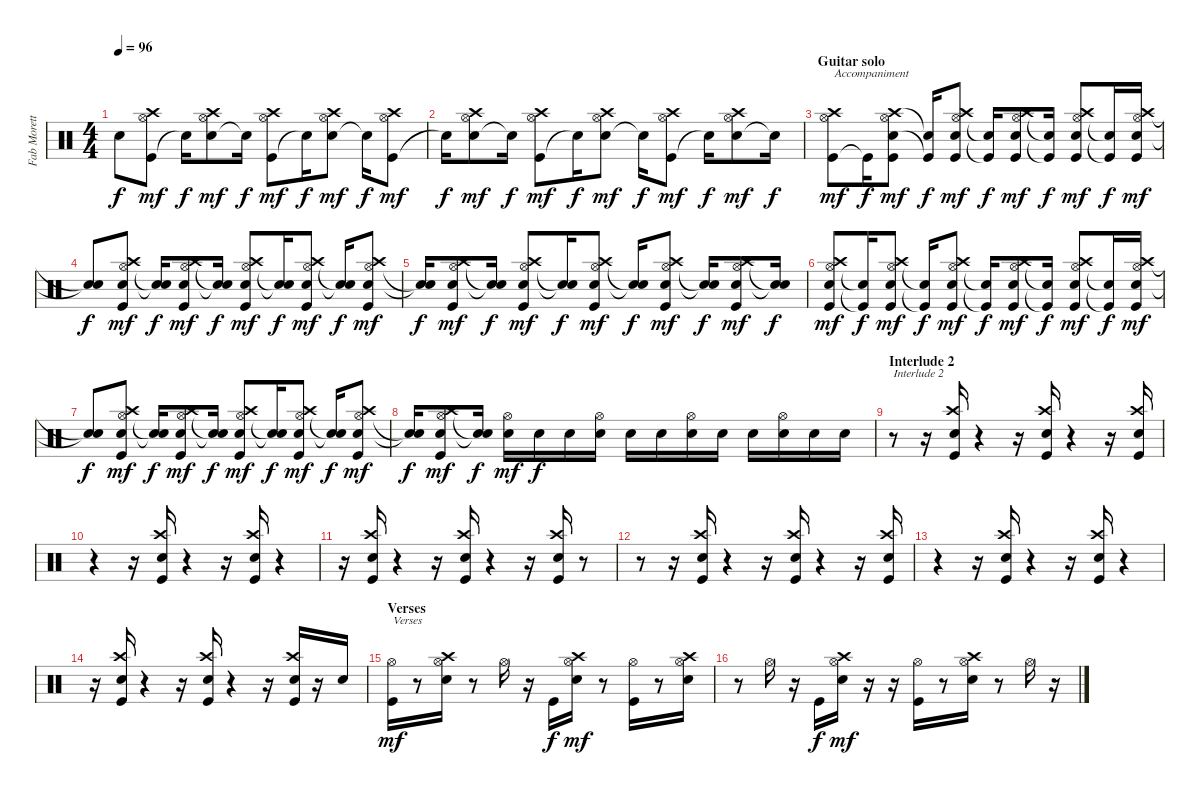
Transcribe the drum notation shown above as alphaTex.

\track ("Fab Moretti" "Fab Morett") {instrument percussion}
\staff {score}
\articulation defaults
\ts (4 4)
\tempo 96
\clef neutral
\ks c "Snare (hit)"{t}.8{dy f}
("Kick (hit)" "Hi-Hat (open)" "Crash high (hit)").8{dy mf} "Snare (hit)"{t}.16{dy f} ("Electric Snare (hit)" "Crash high (hit)" "Hi-Hat (open)").8{dy mf} "Snare (hit)"{t}.16{dy f} ("Kick (hit)" "Hi-Hat (open)" "Crash high (hit)").8{dy mf} "Snare (hit)"{t}.16{dy f} ("Electric Snare (hit)" "Crash high (hit)" "Hi-Hat (open)").8{dy mf} "Snare (hit)"{t}.16{dy f} ("Kick (hit)" "Hi-Hat (open)" "Crash high (hit)").8{dy mf} |
"Snare (hit)"{t}.16{dy f} ("Electric Snare (hit)" "Crash high (hit)" "Hi-Hat (open)").8{dy mf} "Snare (hit)"{t}.16{dy f} ("Kick (hit)" "Hi-Hat (open)" "Crash high (hit)").8{dy mf} "Snare (hit)"{t}.16{dy f} ("Electric Snare (hit)" "Crash high (hit)" "Hi-Hat (open)").8{dy mf} "Snare (hit)"{t}.16{dy f} ("Kick (hit)" "Hi-Hat (open)" "Crash high (hit)").8{dy mf} "Snare (hit)"{t}.16{dy f} ("Electric Snare (hit)" "Crash high (hit)" "Hi-Hat (open)").8{dy mf} "Snare (hit)"{t}.16{dy f} |
\section ("" "Guitar solo")
("Kick (hit)" "Hi-Hat (open)" "Crash high (hit)").8{txt "Accompaniment" dy mf} "Kick (hit)"{t}.16{dy f} ("Electric Snare (hit)" "Crash high (hit)" "Hi-Hat (open)" "Kick (hit)").8{dy mf} ("Kick (hit)"{t} "Snare (hit)"{t}).16{dy f} ("Electric Snare (hit)" "Hi-Hat (open)" "Crash high (hit)" "Kick (hit)").8{dy mf} ("Kick (hit)"{t} "Snare (hit)"{t}).16{dy f} ("Electric Snare (hit)" "Crash high (hit)" "Hi-Hat (open)" "Kick (hit)").8{dy mf} ("Kick (hit)"{t} "Snare (hit)"{t}).16{dy f} ("Electric Snare (hit)" "Hi-Hat (open)" "Crash high (hit)" "Kick (hit)").8{dy mf} ("Kick (hit)"{t} "Snare (hit)"{t}).16{dy f} ("Electric Snare (hit)" "Crash high (hit)" "Hi-Hat (open)" "Kick (hit)").16{dy mf} |
("Snare (hit)"{t} "Snare (hit)"{t}).8{dy f} ("Electric Snare (hit)" "Hi-Hat (open)" "Crash high (hit)" "Kick (hit)").8{dy mf} ("Snare (hit)"{t} "Snare (hit)"{t}).16{dy f} ("Electric Snare (hit)" "Crash high (hit)" "Hi-Hat (open)" "Kick (hit)").8{dy mf} ("Snare (hit)"{t} "Snare (hit)"{t}).16{dy f} ("Electric Snare (hit)" "Hi-Hat (open)" "Crash high (hit)" "Kick (hit)").8{dy mf} ("Snare (hit)"{t} "Snare (hit)"{t}).16{dy f} ("Electric Snare (hit)" "Crash high (hit)" "Hi-Hat (open)" "Kick (hit)").8{dy mf} ("Snare (hit)"{t} "Snare (hit)"{t}).16{dy f} ("Electric Snare (hit)" "Hi-Hat (open)" "Crash high (hit)" "Kick (hit)").8{dy mf} |
("Snare (hit)"{t} "Snare (hit)"{t}).16{dy f} ("Electric Snare (hit)" "Crash high (hit)" "Hi-Hat (open)" "Kick (hit)").8{dy mf} ("Snare (hit)"{t} "Snare (hit)"{t}).16{dy f} ("Electric Snare (hit)" "Hi-Hat (open)" "Crash high (hit)" "Kick (hit)").8{dy mf} ("Snare (hit)"{t} "Snare (hit)"{t}).16{dy f} ("Electric Snare (hit)" "Crash high (hit)" "Hi-Hat (open)" "Kick (hit)").8{dy mf} ("Snare (hit)"{t} "Snare (hit)"{t}).16{dy f} ("Electric Snare (hit)" "Hi-Hat (open)" "Crash high (hit)" "Kick (hit)").8{dy mf} ("Snare (hit)"{t} "Snare (hit)"{t}).16{dy f} ("Electric Snare (hit)" "Crash high (hit)" "Hi-Hat (open)" "Kick (hit)").8{dy mf} ("Snare (hit)"{t} "Snare (hit)"{t}).16{dy f} |
("Electric Snare (hit)" "Hi-Hat (open)" "Crash high (hit)" "Kick (hit)").8{dy mf} ("Kick (hit)"{t} "Snare (hit)"{t}).16{dy f} ("Electric Snare (hit)" "Crash high (hit)" "Hi-Hat (open)" "Kick (hit)").8{dy mf} ("Kick (hit)"{t} "Snare (hit)"{t}).16{dy f} ("Electric Snare (hit)" "Hi-Hat (open)" "Crash high (hit)" "Kick (hit)").8{dy mf} ("Kick (hit)"{t} "Snare (hit)"{t}).16{dy f} ("Electric Snare (hit)" "Crash high (hit)" "Hi-Hat (open)" "Kick (hit)").8{dy mf} ("Kick (hit)"{t} "Snare (hit)"{t}).16{dy f} ("Electric Snare (hit)" "Hi-Hat (open)" "Crash high (hit)" "Kick (hit)").8{dy mf} ("Kick (hit)"{t} "Snare (hit)"{t}).16{dy f} ("Electric Snare (hit)" "Crash high (hit)" "Hi-Hat (open)" "Kick (hit)").16{dy mf} |
("Snare (hit)"{t} "Snare (hit)"{t}).8{dy f} ("Electric Snare (hit)" "Hi-Hat (open)" "Crash high (hit)" "Kick (hit)").8{dy mf} ("Snare (hit)"{t} "Snare (hit)"{t}).16{dy f} ("Electric Snare (hit)" "Crash high (hit)" "Hi-Hat (open)" "Kick (hit)").8{dy mf} ("Snare (hit)"{t} "Snare (hit)"{t}).16{dy f} ("Electric Snare (hit)" "Hi-Hat (open)" "Crash high (hit)" "Kick (hit)").8{dy mf} ("Snare (hit)"{t} "Snare (hit)"{t}).16{dy f} ("Electric Snare (hit)" "Crash high (hit)" "Hi-Hat (open)" "Kick (hit)").8{dy mf} ("Snare (hit)"{t} "Snare (hit)"{t}).16{dy f} ("Electric Snare (hit)" "Hi-Hat (open)" "Crash high (hit)" "Kick (hit)").8{dy mf} |
("Snare (hit)"{t} "Snare (hit)"{t}).16{dy f} ("Electric Snare (hit)" "Crash high (hit)" "Hi-Hat (open)" "Kick (hit)").8{dy mf} ("Snare (hit)"{t} "Snare (hit)"{t}).16{dy f} ("Electric Snare (hit)" "Hi-Hat (open)").16{dy mf} "Electric Snare (hit)".16{dy f} "Electric Snare (hit)".16 ("Electric Snare (hit)" "Hi-Hat (open)").16 "Electric Snare (hit)".16 "Electric Snare (hit)".16 ("Electric Snare (hit)" "Hi-Hat (open)").16 "Electric Snare (hit)".16 "Electric Snare (hit)".16 ("Electric Snare (hit)" "Hi-Hat (open)").16 "Electric Snare (hit)".16 "Electric Snare (hit)".16 |
\section ("" "Interlude 2")
r.8{txt "Interlude 2"} r.16 ("Kick (hit)" "Crash high (hit)" "Electric Snare (hit)").16 r.4 r.16 ("Kick (hit)" "Crash high (hit)" "Electric Snare (hit)").16 r.4 r.16 ("Kick (hit)" "Crash high (hit)" "Electric Snare (hit)").16 |
r.4 r.16 ("Kick (hit)" "Crash high (hit)" "Electric Snare (hit)").16 r.4 r.16 ("Kick (hit)" "Crash high (hit)" "Electric Snare (hit)").16 r.4 |
r.16 ("Kick (hit)" "Crash high (hit)" "Electric Snare (hit)").16 r.4 r.16 ("Kick (hit)" "Crash high (hit)" "Electric Snare (hit)").16 r.4 r.16 ("Kick (hit)" "Crash high (hit)" "Electric Snare (hit)").16 r.8 |
r.8 r.16 ("Kick (hit)" "Crash high (hit)" "Electric Snare (hit)").16 r.4 r.16 ("Kick (hit)" "Crash high (hit)" "Electric Snare (hit)").16 r.4 r.16 ("Kick (hit)" "Crash high (hit)" "Electric Snare (hit)").16 |
r.4 r.16 ("Kick (hit)" "Crash high (hit)" "Electric Snare (hit)").16 r.4 r.16 ("Kick (hit)" "Crash high (hit)" "Electric Snare (hit)").16 r.4 |
r.16 ("Kick (hit)" "Crash high (hit)" "Electric Snare (hit)").16 r.4 r.16 ("Kick (hit)" "Crash high (hit)" "Electric Snare (hit)").16 r.4 r.16 ("Kick (hit)" "Crash high (hit)" "Electric Snare (hit)").16 r.16 "Electric Snare (hit)".16 |
\section ("" "Verses")
("Kick (hit)" "Hi-Hat (open)").16{txt "Verses" dy mf} r.8 ("Crash high (hit)" "Electric Snare (hit)" "Hi-Hat (open)").16 r.8 "Hi-Hat (open)".16 r.16 "Kick (hit)".16{dy f} ("Electric Snare (hit)" "Crash high (hit)" "Hi-Hat (open)").16{dy mf} r.8 ("Kick (hit)" "Hi-Hat (open)").16 r.8 ("Electric Snare (hit)" "Crash high (hit)" "Hi-Hat (open)").16 |
r.8 "Hi-Hat (open)".16 r.16 "Kick (hit)".16{dy f} ("Electric Snare (hit)" "Crash high (hit)" "Hi-Hat (open)").16{dy mf} r.16 r.16 ("Kick (hit)" "Hi-Hat (open)").16 r.8 ("Electric Snare (hit)" "Crash high (hit)" "Hi-Hat (open)").16 r.8 "Hi-Hat (open)".16 r.16
